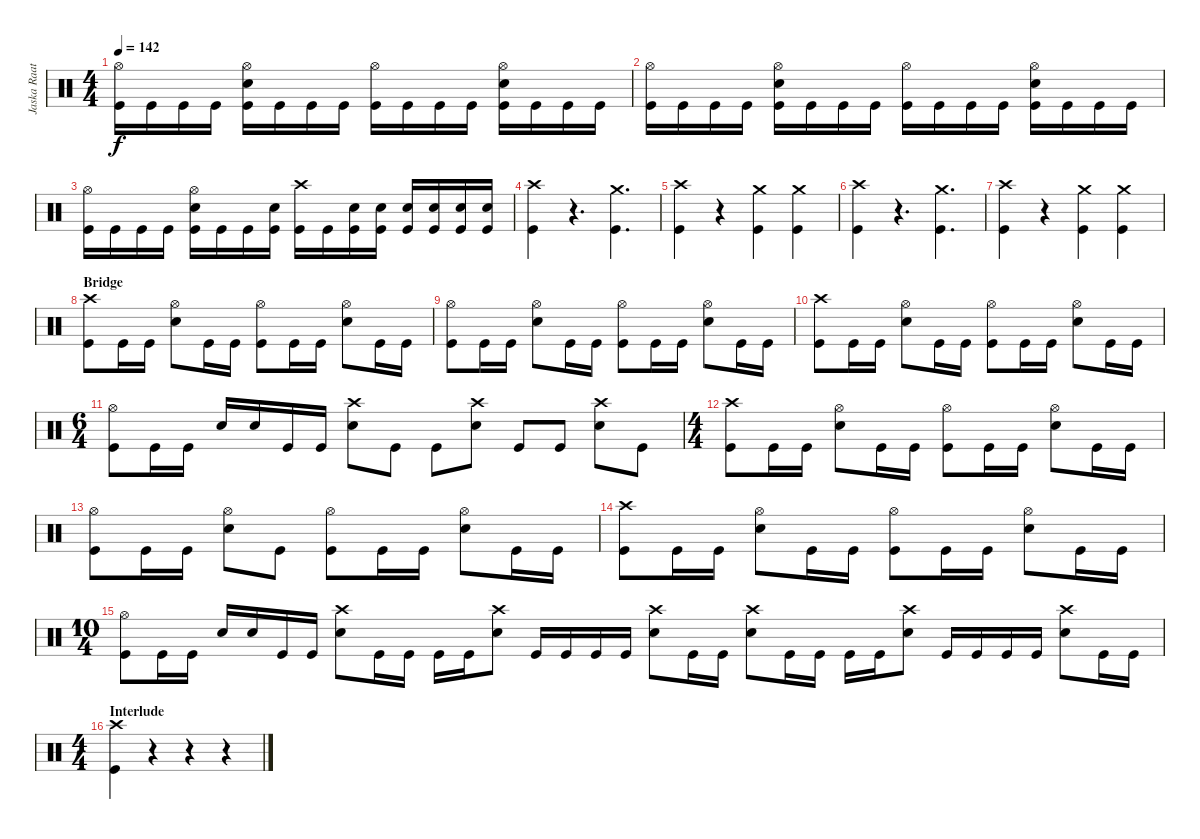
\track ("Jaska Raatikainen" "Jaska Raat") {instrument percussion}
\staff {score}
\articulation defaults
\ts (4 4)
\tempo 142
\clef neutral
\ks c
("Hi-Hat (open)" "Kick (hit)").16{dy f} "Kick (hit)".16 "Kick (hit)".16 "Kick (hit)".16 ("Hi-Hat (open)" "Snare (hit) 2" "Kick (hit)").16 "Kick (hit)".16 "Kick (hit)".16 "Kick (hit)".16 ("Hi-Hat (open)" "Kick (hit)").16 "Kick (hit)".16 "Kick (hit)".16 "Kick (hit)".16 ("Hi-Hat (open)" "Snare (hit) 2" "Kick (hit)").16 "Kick (hit)".16 "Kick (hit)".16 "Kick (hit)".16 |
("Hi-Hat (open)" "Kick (hit)").16 "Kick (hit)".16 "Kick (hit)".16 "Kick (hit)".16 ("Hi-Hat (open)" "Snare (hit) 2" "Kick (hit)").16 "Kick (hit)".16 "Kick (hit)".16 "Kick (hit)".16 ("Hi-Hat (open)" "Kick (hit)").16 "Kick (hit)".16 "Kick (hit)".16 "Kick (hit)".16 ("Hi-Hat (open)" "Snare (hit) 2" "Kick (hit)").16 "Kick (hit)".16 "Kick (hit)".16 "Kick (hit)".16 |
("Hi-Hat (open)" "Kick (hit)").16 "Kick (hit)".16 "Kick (hit)".16 "Kick (hit)".16 ("Hi-Hat (open)" "Snare (hit) 2" "Kick (hit)").16 "Kick (hit)".16 "Kick (hit)".16 ("Snare (hit) 2" "Kick (hit)").16 ("Crash high (hit)" "Kick (hit)").16 "Kick (hit)".16 ("Snare (hit) 2" "Kick (hit)").16 ("Snare (hit) 2" "Kick (hit)").16 ("Snare (hit) 2" "Kick (hit)").16 ("Snare (hit) 2" "Kick (hit)").16 ("Snare (hit) 2" "Kick (hit)").16 ("Snare (hit) 2" "Kick (hit)").16 |
("Crash high (hit)" "Kick (hit)").4 r.4{d} ("Crash medium (hit)" "Kick (hit)").4{d} |
("Crash high (hit)" "Kick (hit)").4 r.4 ("Crash medium (hit)" "Kick (hit)").4 ("Crash medium (hit)" "Kick (hit)").4 |
("Crash high (hit)" "Kick (hit)").4 r.4{d} ("Crash medium (hit)" "Kick (hit)").4{d} |
("Crash high (hit)" "Kick (hit)").4 r.4 ("Crash medium (hit)" "Kick (hit)").4 ("Crash medium (hit)" "Kick (hit)").4 |
\section ("" "Bridge ")
("Crash high (hit)" "Kick (hit)").8 "Kick (hit)".16 "Kick (hit)".16 ("Hi-Hat (open)" "Snare (hit) 2").8 "Kick (hit)".16 "Kick (hit)".16 ("Hi-Hat (open)" "Kick (hit)").8 "Kick (hit)".16 "Kick (hit)".16 ("Hi-Hat (open)" "Snare (hit) 2").8 "Kick (hit)".16 "Kick (hit)".16 |
("Hi-Hat (open)" "Kick (hit)").8 "Kick (hit)".16 "Kick (hit)".16 ("Hi-Hat (open)" "Snare (hit) 2").8 "Kick (hit)".16 "Kick (hit)".16 ("Hi-Hat (open)" "Kick (hit)").8 "Kick (hit)".16 "Kick (hit)".16 ("Hi-Hat (open)" "Snare (hit) 2").8 "Kick (hit)".16 "Kick (hit)".16 |
("Crash high (hit)" "Kick (hit)").8 "Kick (hit)".16 "Kick (hit)".16 ("Hi-Hat (open)" "Snare (hit) 2").8 "Kick (hit)".16 "Kick (hit)".16 ("Hi-Hat (open)" "Kick (hit)").8 "Kick (hit)".16 "Kick (hit)".16 ("Hi-Hat (open)" "Snare (hit) 2").8 "Kick (hit)".16 "Kick (hit)".16 |
\ts (6 4)
("Hi-Hat (open)" "Kick (hit)").8 "Kick (hit)".16 "Kick (hit)".16 "Snare (hit) 2".16 "Snare (hit) 2".16 "Kick (hit)".16 "Kick (hit)".16 ("Crash high (hit)" "Snare (hit) 2").8 "Kick (hit)".8 "Kick (hit)".8 ("Crash high (hit)" "Snare (hit) 2").8 "Kick (hit)".8 "Kick (hit)".8 ("Crash high (hit)" "Snare (hit) 2").8 "Kick (hit)".8 |
\ts (4 4)
("Crash high (hit)" "Kick (hit)").8 "Kick (hit)".16 "Kick (hit)".16 ("Hi-Hat (open)" "Snare (hit) 2").8 "Kick (hit)".16 "Kick (hit)".16 ("Hi-Hat (open)" "Kick (hit)").8 "Kick (hit)".16 "Kick (hit)".16 ("Hi-Hat (open)" "Snare (hit) 2").8 "Kick (hit)".16 "Kick (hit)".16 |
("Hi-Hat (open)" "Kick (hit)").8 "Kick (hit)".16 "Kick (hit)".16 ("Hi-Hat (open)" "Snare (hit) 2").8 "Kick (hit)".8 ("Hi-Hat (open)" "Kick (hit)").8 "Kick (hit)".16 "Kick (hit)".16 ("Hi-Hat (open)" "Snare (hit) 2").8 "Kick (hit)".16 "Kick (hit)".16 |
("Crash high (hit)" "Kick (hit)").8 "Kick (hit)".16 "Kick (hit)".16 ("Hi-Hat (open)" "Snare (hit) 2").8 "Kick (hit)".16 "Kick (hit)".16 ("Hi-Hat (open)" "Kick (hit)").8 "Kick (hit)".16 "Kick (hit)".16 ("Hi-Hat (open)" "Snare (hit) 2").8 "Kick (hit)".16 "Kick (hit)".16 |
\ts (10 4)
("Hi-Hat (open)" "Kick (hit)").8 "Kick (hit)".16 "Kick (hit)".16 "Snare (hit) 2".16 "Snare (hit) 2".16 "Kick (hit)".16 "Kick (hit)".16 ("Crash high (hit)" "Snare (hit) 2").8 "Kick (hit)".16 "Kick (hit)".16 "Kick (hit)".16 "Kick (hit)".16 ("Crash high (hit)" "Snare (hit) 2").8 "Kick (hit)".16 "Kick (hit)".16 "Kick (hit)".16 "Kick (hit)".16 ("Crash high (hit)" "Snare (hit) 2").8 "Kick (hit)".16 "Kick (hit)".16 ("Crash high (hit)" "Snare (hit) 2").8 "Kick (hit)".16 "Kick (hit)".16 "Kick (hit)".16 "Kick (hit)".16 ("Crash high (hit)" "Snare (hit) 2").8 "Kick (hit)".16 "Kick (hit)".16 "Kick (hit)".16 "Kick (hit)".16 ("Crash high (hit)" "Snare (hit) 2").8 "Kick (hit)".16 "Kick (hit)".16 |
\ts (4 4)
\section ("" "Interlude")
("Crash high (hit)" "Kick (hit)").4 r.4 r.4 r.4
